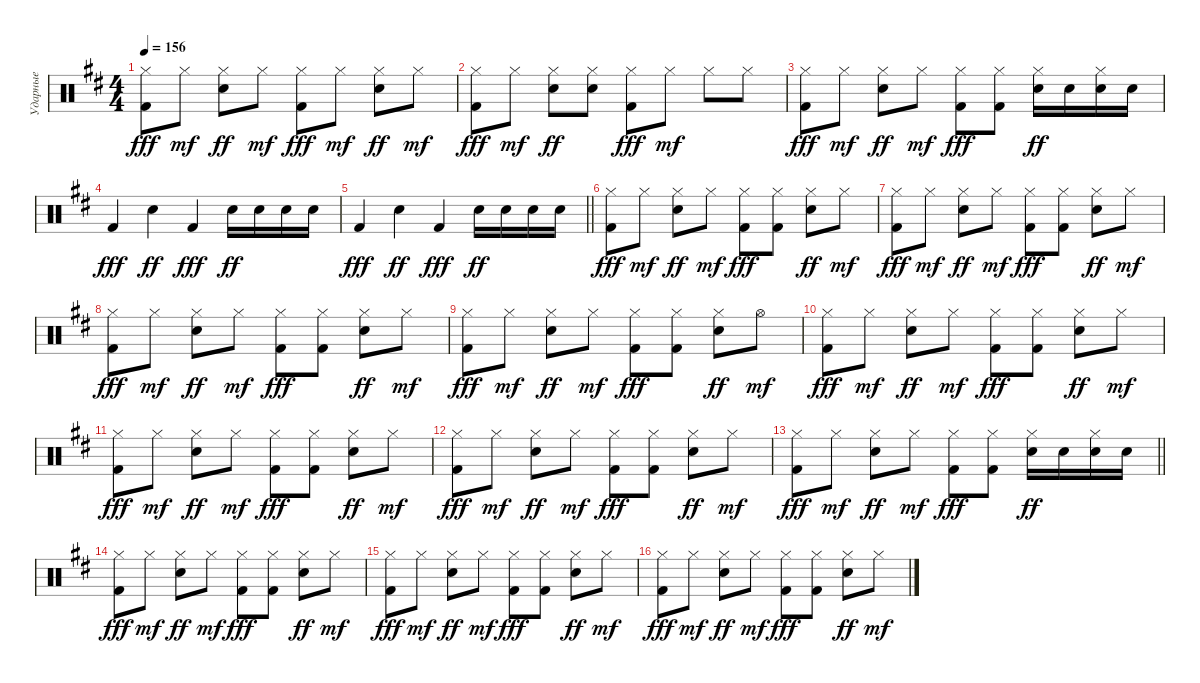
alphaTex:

\track ("Ударные" "Ударные") {instrument percussion}
\staff {score}
\articulation defaults
\ts (4 4)
\tempo 156
\clef neutral
\ks bminor
("Hi-Hat (closed)" "Kick (hit) 2").8{dy fff} "Hi-Hat (closed)".8{dy mf} ("Hi-Hat (closed)" "Electric Snare (hit)").8{dy ff} "Hi-Hat (closed)".8{dy mf} ("Hi-Hat (closed)" "Kick (hit) 2").8{dy fff} "Hi-Hat (closed)".8{dy mf} ("Hi-Hat (closed)" "Electric Snare (hit)").8{dy ff} "Hi-Hat (closed)".8{dy mf} |
("Hi-Hat (closed)" "Kick (hit) 2").8{dy fff} "Hi-Hat (closed)".8{dy mf} ("Hi-Hat (closed)" "Electric Snare (hit)").8{dy ff} ("Hi-Hat (closed)" "Electric Snare (hit)").8 ("Hi-Hat (closed)" "Kick (hit) 2").8{dy fff} "Hi-Hat (closed)".8{dy mf} "Hi-Hat (closed)".8 "Hi-Hat (closed)".8 |
("Hi-Hat (closed)" "Kick (hit) 2").8{dy fff} "Hi-Hat (closed)".8{dy mf} ("Hi-Hat (closed)" "Electric Snare (hit)").8{dy ff} "Hi-Hat (closed)".8{dy mf} ("Hi-Hat (closed)" "Kick (hit) 2").8{dy fff} ("Hi-Hat (closed)" "Kick (hit) 2").8 ("Hi-Hat (closed)" "Electric Snare (hit)").16{dy ff} "Electric Snare (hit)".16 ("Hi-Hat (closed)" "Electric Snare (hit)").16 "Electric Snare (hit)".16 |
"Kick (hit) 2".4{dy fff} "Electric Snare (hit)".4{dy ff} "Kick (hit) 2".4{dy fff} "Electric Snare (hit)".16{dy ff} "Electric Snare (hit)".16 "Electric Snare (hit)".16 "Electric Snare (hit)".16 |
\barLineRight lightlight "Kick (hit) 2".4{dy fff} "Electric Snare (hit)".4{dy ff} "Kick (hit) 2".4{dy fff} "Electric Snare (hit)".16{dy ff} "Electric Snare (hit)".16 "Electric Snare (hit)".16 "Electric Snare (hit)".16
|
("Hi-Hat (closed)" "Kick (hit) 2").8{dy fff} "Hi-Hat (closed)".8{dy mf} ("Hi-Hat (closed)" "Electric Snare (hit)").8{dy ff} "Hi-Hat (closed)".8{dy mf} ("Hi-Hat (closed)" "Kick (hit) 2").8{dy fff} ("Hi-Hat (closed)" "Kick (hit) 2").8 ("Hi-Hat (closed)" "Electric Snare (hit)").8{dy ff} "Hi-Hat (closed)".8{dy mf} |
("Hi-Hat (closed)" "Kick (hit) 2").8{dy fff} "Hi-Hat (closed)".8{dy mf} ("Hi-Hat (closed)" "Electric Snare (hit)").8{dy ff} "Hi-Hat (closed)".8{dy mf} ("Hi-Hat (closed)" "Kick (hit) 2").8{dy fff} ("Hi-Hat (closed)" "Kick (hit) 2").8 ("Hi-Hat (closed)" "Electric Snare (hit)").8{dy ff} "Hi-Hat (closed)".8{dy mf} |
("Hi-Hat (closed)" "Kick (hit) 2").8{dy fff} "Hi-Hat (closed)".8{dy mf} ("Hi-Hat (closed)" "Electric Snare (hit)").8{dy ff} "Hi-Hat (closed)".8{dy mf} ("Hi-Hat (closed)" "Kick (hit) 2").8{dy fff} ("Hi-Hat (closed)" "Kick (hit) 2").8 ("Hi-Hat (closed)" "Electric Snare (hit)").8{dy ff} "Hi-Hat (closed)".8{dy mf} |
("Hi-Hat (closed)" "Kick (hit) 2").8{dy fff} "Hi-Hat (closed)".8{dy mf} ("Hi-Hat (closed)" "Electric Snare (hit)").8{dy ff} "Hi-Hat (closed)".8{dy mf} ("Hi-Hat (closed)" "Kick (hit) 2").8{dy fff} ("Hi-Hat (closed)" "Kick (hit) 2").8 ("Hi-Hat (closed)" "Electric Snare (hit)").8{dy ff} "Hi-Hat (open)".8{dy mf} |
("Hi-Hat (closed)" "Kick (hit) 2").8{dy fff} "Hi-Hat (closed)".8{dy mf} ("Hi-Hat (closed)" "Electric Snare (hit)").8{dy ff} "Hi-Hat (closed)".8{dy mf} ("Hi-Hat (closed)" "Kick (hit) 2").8{dy fff} ("Hi-Hat (closed)" "Kick (hit) 2").8 ("Hi-Hat (closed)" "Electric Snare (hit)").8{dy ff} "Hi-Hat (closed)".8{dy mf} |
("Hi-Hat (closed)" "Kick (hit) 2").8{dy fff} "Hi-Hat (closed)".8{dy mf} ("Hi-Hat (closed)" "Electric Snare (hit)").8{dy ff} "Hi-Hat (closed)".8{dy mf} ("Hi-Hat (closed)" "Kick (hit) 2").8{dy fff} ("Hi-Hat (closed)" "Kick (hit) 2").8 ("Hi-Hat (closed)" "Electric Snare (hit)").8{dy ff} "Hi-Hat (closed)".8{dy mf} |
("Hi-Hat (closed)" "Kick (hit) 2").8{dy fff} "Hi-Hat (closed)".8{dy mf} ("Hi-Hat (closed)" "Electric Snare (hit)").8{dy ff} "Hi-Hat (closed)".8{dy mf} ("Hi-Hat (closed)" "Kick (hit) 2").8{dy fff} ("Hi-Hat (closed)" "Kick (hit) 2").8 ("Hi-Hat (closed)" "Electric Snare (hit)").8{dy ff} "Hi-Hat (closed)".8{dy mf} |
\barLineRight lightlight
("Hi-Hat (closed)" "Kick (hit) 2").8{dy fff} "Hi-Hat (closed)".8{dy mf} ("Hi-Hat (closed)" "Electric Snare (hit)").8{dy ff} "Hi-Hat (closed)".8{dy mf} ("Hi-Hat (closed)" "Kick (hit) 2").8{dy fff} ("Hi-Hat (closed)" "Kick (hit) 2").8 ("Hi-Hat (closed)" "Electric Snare (hit)").16{dy ff} "Electric Snare (hit)".16 ("Hi-Hat (closed)" "Electric Snare (hit)").16 "Electric Snare (hit)".16 |
("Hi-Hat (closed)" "Kick (hit) 2").8{dy fff} "Hi-Hat (closed)".8{dy mf} ("Hi-Hat (closed)" "Electric Snare (hit)").8{dy ff} "Hi-Hat (closed)".8{dy mf} ("Hi-Hat (closed)" "Kick (hit) 2").8{dy fff} ("Hi-Hat (closed)" "Kick (hit) 2").8 ("Hi-Hat (closed)" "Electric Snare (hit)").8{dy ff} "Hi-Hat (closed)".8{dy mf} |
("Hi-Hat (closed)" "Kick (hit) 2").8{dy fff} "Hi-Hat (closed)".8{dy mf} ("Hi-Hat (closed)" "Electric Snare (hit)").8{dy ff} "Hi-Hat (closed)".8{dy mf} ("Hi-Hat (closed)" "Kick (hit) 2").8{dy fff} ("Hi-Hat (closed)" "Kick (hit) 2").8 ("Hi-Hat (closed)" "Electric Snare (hit)").8{dy ff} "Hi-Hat (closed)".8{dy mf} |
("Hi-Hat (closed)" "Kick (hit) 2").8{dy fff} "Hi-Hat (closed)".8{dy mf} ("Hi-Hat (closed)" "Electric Snare (hit)").8{dy ff} "Hi-Hat (closed)".8{dy mf} ("Hi-Hat (closed)" "Kick (hit) 2").8{dy fff} ("Hi-Hat (closed)" "Kick (hit) 2").8 ("Hi-Hat (closed)" "Electric Snare (hit)").8{dy ff} "Hi-Hat (closed)".8{dy mf}
